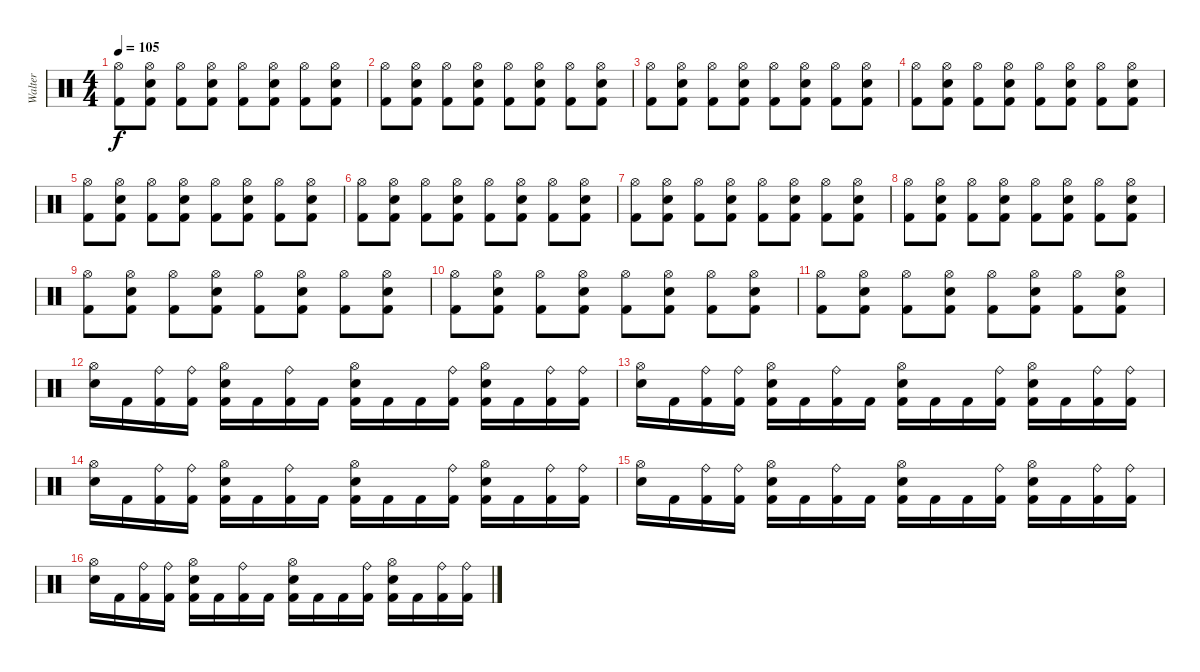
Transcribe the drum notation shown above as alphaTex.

\track ("Walter" "Walter") {instrument percussion}
\staff {score}
\articulation defaults
\ts (4 4)
\tempo 105
\clef neutral
\ks c
("Hi-Hat (open)" "Kick (hit) 2").8{dy f} ("Hi-Hat (open)" "Electric Snare (hit)" "Kick (hit) 2").8 ("Hi-Hat (open)" "Kick (hit) 2").8 ("Hi-Hat (open)" "Electric Snare (hit)" "Kick (hit) 2").8 ("Hi-Hat (open)" "Kick (hit) 2").8 ("Hi-Hat (open)" "Electric Snare (hit)" "Kick (hit) 2").8 ("Hi-Hat (open)" "Kick (hit) 2").8 ("Hi-Hat (open)" "Electric Snare (hit)" "Kick (hit) 2").8 |
("Hi-Hat (open)" "Kick (hit) 2").8 ("Hi-Hat (open)" "Electric Snare (hit)" "Kick (hit) 2").8 ("Hi-Hat (open)" "Kick (hit) 2").8 ("Hi-Hat (open)" "Electric Snare (hit)" "Kick (hit) 2").8 ("Hi-Hat (open)" "Kick (hit) 2").8 ("Hi-Hat (open)" "Electric Snare (hit)" "Kick (hit) 2").8 ("Hi-Hat (open)" "Kick (hit) 2").8 ("Hi-Hat (open)" "Electric Snare (hit)" "Kick (hit) 2").8 |
("Hi-Hat (open)" "Kick (hit) 2").8 ("Hi-Hat (open)" "Electric Snare (hit)" "Kick (hit) 2").8 ("Hi-Hat (open)" "Kick (hit) 2").8 ("Hi-Hat (open)" "Electric Snare (hit)" "Kick (hit) 2").8 ("Hi-Hat (open)" "Kick (hit) 2").8 ("Hi-Hat (open)" "Electric Snare (hit)" "Kick (hit) 2").8 ("Hi-Hat (open)" "Kick (hit) 2").8 ("Hi-Hat (open)" "Electric Snare (hit)" "Kick (hit) 2").8 |
("Hi-Hat (open)" "Kick (hit) 2").8 ("Hi-Hat (open)" "Electric Snare (hit)" "Kick (hit) 2").8 ("Hi-Hat (open)" "Kick (hit) 2").8 ("Hi-Hat (open)" "Electric Snare (hit)" "Kick (hit) 2").8 ("Hi-Hat (open)" "Kick (hit) 2").8 ("Hi-Hat (open)" "Electric Snare (hit)" "Kick (hit) 2").8 ("Hi-Hat (open)" "Kick (hit) 2").8 ("Hi-Hat (open)" "Electric Snare (hit)" "Kick (hit) 2").8 |
("Hi-Hat (open)" "Kick (hit) 2").8 ("Hi-Hat (open)" "Electric Snare (hit)" "Kick (hit) 2").8 ("Hi-Hat (open)" "Kick (hit) 2").8 ("Hi-Hat (open)" "Electric Snare (hit)" "Kick (hit) 2").8 ("Hi-Hat (open)" "Kick (hit) 2").8 ("Hi-Hat (open)" "Electric Snare (hit)" "Kick (hit) 2").8 ("Hi-Hat (open)" "Kick (hit) 2").8 ("Hi-Hat (open)" "Electric Snare (hit)" "Kick (hit) 2").8 |
("Hi-Hat (open)" "Kick (hit) 2").8 ("Hi-Hat (open)" "Electric Snare (hit)" "Kick (hit) 2").8 ("Hi-Hat (open)" "Kick (hit) 2").8 ("Hi-Hat (open)" "Electric Snare (hit)" "Kick (hit) 2").8 ("Hi-Hat (open)" "Kick (hit) 2").8 ("Hi-Hat (open)" "Electric Snare (hit)" "Kick (hit) 2").8 ("Hi-Hat (open)" "Kick (hit) 2").8 ("Hi-Hat (open)" "Electric Snare (hit)" "Kick (hit) 2").8 |
("Hi-Hat (open)" "Kick (hit) 2").8 ("Hi-Hat (open)" "Electric Snare (hit)" "Kick (hit) 2").8 ("Hi-Hat (open)" "Kick (hit) 2").8 ("Hi-Hat (open)" "Electric Snare (hit)" "Kick (hit) 2").8 ("Hi-Hat (open)" "Kick (hit) 2").8 ("Hi-Hat (open)" "Electric Snare (hit)" "Kick (hit) 2").8 ("Hi-Hat (open)" "Kick (hit) 2").8 ("Hi-Hat (open)" "Electric Snare (hit)" "Kick (hit) 2").8 |
("Hi-Hat (open)" "Kick (hit) 2").8 ("Hi-Hat (open)" "Electric Snare (hit)" "Kick (hit) 2").8 ("Hi-Hat (open)" "Kick (hit) 2").8 ("Hi-Hat (open)" "Electric Snare (hit)" "Kick (hit) 2").8 ("Hi-Hat (open)" "Kick (hit) 2").8 ("Hi-Hat (open)" "Electric Snare (hit)" "Kick (hit) 2").8 ("Hi-Hat (open)" "Kick (hit) 2").8 ("Hi-Hat (open)" "Electric Snare (hit)" "Kick (hit) 2").8 |
("Hi-Hat (open)" "Kick (hit) 2").8 ("Hi-Hat (open)" "Electric Snare (hit)" "Kick (hit) 2").8 ("Hi-Hat (open)" "Kick (hit) 2").8 ("Hi-Hat (open)" "Electric Snare (hit)" "Kick (hit) 2").8 ("Hi-Hat (open)" "Kick (hit) 2").8 ("Hi-Hat (open)" "Electric Snare (hit)" "Kick (hit) 2").8 ("Hi-Hat (open)" "Kick (hit) 2").8 ("Hi-Hat (open)" "Electric Snare (hit)" "Kick (hit) 2").8 |
("Hi-Hat (open)" "Kick (hit) 2").8 ("Hi-Hat (open)" "Electric Snare (hit)" "Kick (hit) 2").8 ("Hi-Hat (open)" "Kick (hit) 2").8 ("Hi-Hat (open)" "Electric Snare (hit)" "Kick (hit) 2").8 ("Hi-Hat (open)" "Kick (hit) 2").8 ("Hi-Hat (open)" "Electric Snare (hit)" "Kick (hit) 2").8 ("Hi-Hat (open)" "Kick (hit) 2").8 ("Hi-Hat (open)" "Electric Snare (hit)" "Kick (hit) 2").8 |
("Hi-Hat (open)" "Kick (hit) 2").8 ("Hi-Hat (open)" "Electric Snare (hit)" "Kick (hit) 2").8 ("Hi-Hat (open)" "Kick (hit) 2").8 ("Hi-Hat (open)" "Electric Snare (hit)" "Kick (hit) 2").8 ("Hi-Hat (open)" "Kick (hit) 2").8 ("Hi-Hat (open)" "Electric Snare (hit)" "Kick (hit) 2").8 ("Hi-Hat (open)" "Kick (hit) 2").8 ("Hi-Hat (open)" "Electric Snare (hit)" "Kick (hit) 2").8 |
("Hi-Hat (open)" "Electric Snare (hit)").16 "Kick (hit) 2".16 ("Ride (bell)" "Kick (hit) 2").16 ("Ride (bell)" "Kick (hit) 2").16 ("Hi-Hat (open)" "Electric Snare (hit)" "Kick (hit) 2").16 "Kick (hit) 2".16 ("Ride (bell)" "Kick (hit) 2").16 "Kick (hit) 2".16 ("Hi-Hat (open)" "Electric Snare (hit)" "Kick (hit) 2").16 "Kick (hit) 2".16 "Kick (hit) 2".16 ("Ride (bell)" "Kick (hit) 2").16 ("Hi-Hat (open)" "Electric Snare (hit)" "Kick (hit) 2").16 "Kick (hit) 2".16 ("Ride (bell)" "Kick (hit) 2").16 ("Ride (bell)" "Kick (hit) 2").16 |
("Hi-Hat (open)" "Electric Snare (hit)").16 "Kick (hit) 2".16 ("Ride (bell)" "Kick (hit) 2").16 ("Ride (bell)" "Kick (hit) 2").16 ("Hi-Hat (open)" "Electric Snare (hit)" "Kick (hit) 2").16 "Kick (hit) 2".16 ("Ride (bell)" "Kick (hit) 2").16 "Kick (hit) 2".16 ("Hi-Hat (open)" "Electric Snare (hit)" "Kick (hit) 2").16 "Kick (hit) 2".16 "Kick (hit) 2".16 ("Ride (bell)" "Kick (hit) 2").16 ("Hi-Hat (open)" "Electric Snare (hit)" "Kick (hit) 2").16 "Kick (hit) 2".16 ("Ride (bell)" "Kick (hit) 2").16 ("Ride (bell)" "Kick (hit) 2").16 |
("Hi-Hat (open)" "Electric Snare (hit)").16 "Kick (hit) 2".16 ("Ride (bell)" "Kick (hit) 2").16 ("Ride (bell)" "Kick (hit) 2").16 ("Hi-Hat (open)" "Electric Snare (hit)" "Kick (hit) 2").16 "Kick (hit) 2".16 ("Ride (bell)" "Kick (hit) 2").16 "Kick (hit) 2".16 ("Hi-Hat (open)" "Electric Snare (hit)" "Kick (hit) 2").16 "Kick (hit) 2".16 "Kick (hit) 2".16 ("Ride (bell)" "Kick (hit) 2").16 ("Hi-Hat (open)" "Electric Snare (hit)" "Kick (hit) 2").16 "Kick (hit) 2".16 ("Ride (bell)" "Kick (hit) 2").16 ("Ride (bell)" "Kick (hit) 2").16 |
("Hi-Hat (open)" "Electric Snare (hit)").16 "Kick (hit) 2".16 ("Ride (bell)" "Kick (hit) 2").16 ("Ride (bell)" "Kick (hit) 2").16 ("Hi-Hat (open)" "Electric Snare (hit)" "Kick (hit) 2").16 "Kick (hit) 2".16 ("Ride (bell)" "Kick (hit) 2").16 "Kick (hit) 2".16 ("Hi-Hat (open)" "Electric Snare (hit)" "Kick (hit) 2").16 "Kick (hit) 2".16 "Kick (hit) 2".16 ("Ride (bell)" "Kick (hit) 2").16 ("Hi-Hat (open)" "Electric Snare (hit)" "Kick (hit) 2").16 "Kick (hit) 2".16 ("Ride (bell)" "Kick (hit) 2").16 ("Ride (bell)" "Kick (hit) 2").16 |
("Hi-Hat (open)" "Electric Snare (hit)").16 "Kick (hit) 2".16 ("Ride (bell)" "Kick (hit) 2").16 ("Ride (bell)" "Kick (hit) 2").16 ("Hi-Hat (open)" "Electric Snare (hit)" "Kick (hit) 2").16 "Kick (hit) 2".16 ("Ride (bell)" "Kick (hit) 2").16 "Kick (hit) 2".16 ("Hi-Hat (open)" "Electric Snare (hit)" "Kick (hit) 2").16 "Kick (hit) 2".16 "Kick (hit) 2".16 ("Ride (bell)" "Kick (hit) 2").16 ("Hi-Hat (open)" "Electric Snare (hit)" "Kick (hit) 2").16 "Kick (hit) 2".16 ("Ride (bell)" "Kick (hit) 2").16 ("Ride (bell)" "Kick (hit) 2").16
